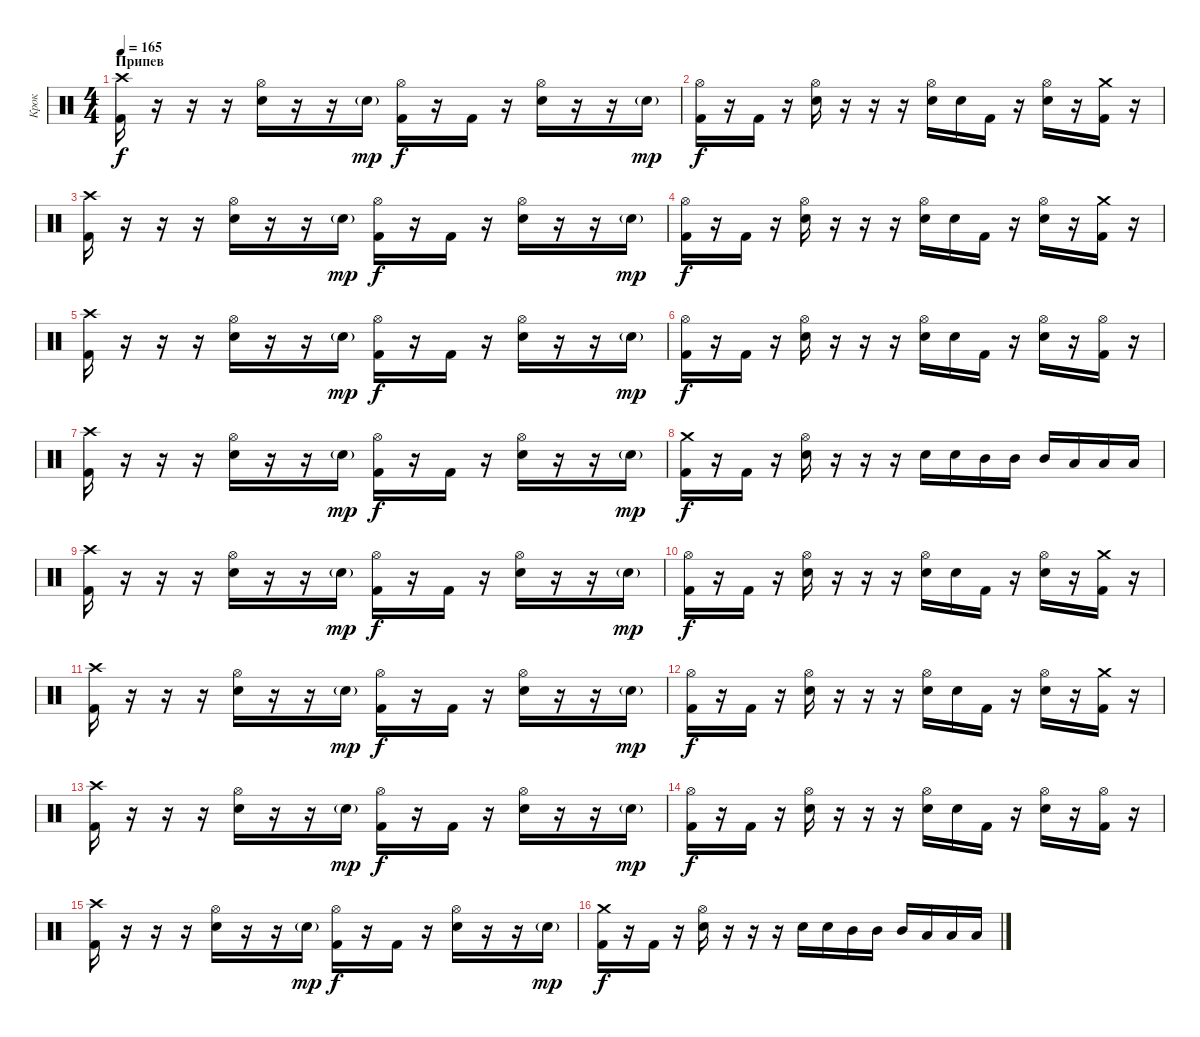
\track ("Крок" "Крок") {instrument percussion}
\staff {score}
\articulation defaults
\ts (4 4)
\section ("" "Припев")
\tempo 165
\clef neutral
\ks c
("Kick (hit) 2" "Crash high (hit)").16{dy f} r.16 r.16 r.16 ("Electric Snare (hit)" "Hi-Hat (open)").16 r.16 r.16 "Electric Snare (hit)"{g}.16{dy mp} ("Kick (hit) 2" "Hi-Hat (open)").16{dy f} r.16 "Kick (hit) 2".16 r.16 ("Electric Snare (hit)" "Hi-Hat (open)").16 r.16 r.16 "Electric Snare (hit)"{g}.16{dy mp} |
("Kick (hit) 2" "Hi-Hat (open)").16{dy f} r.16 "Kick (hit) 2".16 r.16 ("Electric Snare (hit)" "Hi-Hat (open)").16 r.16 r.16 r.16 ("Electric Snare (hit)" "Hi-Hat (open)").16 "Electric Snare (hit)".16 "Kick (hit) 2".16 r.16 ("Electric Snare (hit)" "Hi-Hat (open)").16 r.16 ("Kick (hit) 2" "Crash medium (hit)").16 r.16 |
("Kick (hit) 2" "Crash high (hit)").16 r.16 r.16 r.16 ("Electric Snare (hit)" "Hi-Hat (open)").16 r.16 r.16 "Electric Snare (hit)"{g}.16{dy mp} ("Kick (hit) 2" "Hi-Hat (open)").16{dy f} r.16 "Kick (hit) 2".16 r.16 ("Electric Snare (hit)" "Hi-Hat (open)").16 r.16 r.16 "Electric Snare (hit)"{g}.16{dy mp} |
("Kick (hit) 2" "Hi-Hat (open)").16{dy f} r.16 "Kick (hit) 2".16 r.16 ("Electric Snare (hit)" "Hi-Hat (open)").16 r.16 r.16 r.16 ("Electric Snare (hit)" "Hi-Hat (open)").16 "Electric Snare (hit)".16 "Kick (hit) 2".16 r.16 ("Electric Snare (hit)" "Hi-Hat (open)").16 r.16 ("Kick (hit) 2" "Crash medium (hit)").16 r.16 |
("Kick (hit) 2" "Crash high (hit)").16 r.16 r.16 r.16 ("Electric Snare (hit)" "Hi-Hat (open)").16 r.16 r.16 "Electric Snare (hit)"{g}.16{dy mp} ("Kick (hit) 2" "Hi-Hat (open)").16{dy f} r.16 "Kick (hit) 2".16 r.16 ("Electric Snare (hit)" "Hi-Hat (open)").16 r.16 r.16 "Electric Snare (hit)"{g}.16{dy mp} |
("Kick (hit) 2" "Hi-Hat (open)").16{dy f} r.16 "Kick (hit) 2".16 r.16 ("Electric Snare (hit)" "Hi-Hat (open)").16 r.16 r.16 r.16 ("Electric Snare (hit)" "Hi-Hat (open)").16 "Electric Snare (hit)".16 "Kick (hit) 2".16 r.16 ("Electric Snare (hit)" "Hi-Hat (open)").16 r.16 ("Kick (hit) 2" "Hi-Hat (open)").16 r.16 |
("Kick (hit) 2" "Crash high (hit)").16 r.16 r.16 r.16 ("Electric Snare (hit)" "Hi-Hat (open)").16 r.16 r.16 "Electric Snare (hit)"{g}.16{dy mp} ("Kick (hit) 2" "Hi-Hat (open)").16{dy f} r.16 "Kick (hit) 2".16 r.16 ("Electric Snare (hit)" "Hi-Hat (open)").16 r.16 r.16 "Electric Snare (hit)"{g}.16{dy mp} |
("Kick (hit) 2" "Crash medium (hit)").16{dy f} r.16 "Kick (hit) 2".16 r.16 ("Electric Snare (hit)" "Hi-Hat (open)").16 r.16 r.16 r.16 "Electric Snare (hit)".16 "Electric Snare (hit)".16 "Mid Tom (hit)".16 "Mid Tom (hit)".16 "Mid Tom (hit)".16 "Low Tom (hit)".16 "Low Tom (hit)".16 "Low Tom (hit)".16 |
("Kick (hit) 2" "Crash high (hit)").16 r.16 r.16 r.16 ("Electric Snare (hit)" "Hi-Hat (open)").16 r.16 r.16 "Electric Snare (hit)"{g}.16{dy mp} ("Kick (hit) 2" "Hi-Hat (open)").16{dy f} r.16 "Kick (hit) 2".16 r.16 ("Electric Snare (hit)" "Hi-Hat (open)").16 r.16 r.16 "Electric Snare (hit)"{g}.16{dy mp} |
("Kick (hit) 2" "Hi-Hat (open)").16{dy f} r.16 "Kick (hit) 2".16 r.16 ("Electric Snare (hit)" "Hi-Hat (open)").16 r.16 r.16 r.16 ("Electric Snare (hit)" "Hi-Hat (open)").16 "Electric Snare (hit)".16 "Kick (hit) 2".16 r.16 ("Electric Snare (hit)" "Hi-Hat (open)").16 r.16 ("Kick (hit) 2" "Crash medium (hit)").16 r.16 |
("Kick (hit) 2" "Crash high (hit)").16 r.16 r.16 r.16 ("Electric Snare (hit)" "Hi-Hat (open)").16 r.16 r.16 "Electric Snare (hit)"{g}.16{dy mp} ("Kick (hit) 2" "Hi-Hat (open)").16{dy f} r.16 "Kick (hit) 2".16 r.16 ("Electric Snare (hit)" "Hi-Hat (open)").16 r.16 r.16 "Electric Snare (hit)"{g}.16{dy mp} |
("Kick (hit) 2" "Hi-Hat (open)").16{dy f} r.16 "Kick (hit) 2".16 r.16 ("Electric Snare (hit)" "Hi-Hat (open)").16 r.16 r.16 r.16 ("Electric Snare (hit)" "Hi-Hat (open)").16 "Electric Snare (hit)".16 "Kick (hit) 2".16 r.16 ("Electric Snare (hit)" "Hi-Hat (open)").16 r.16 ("Kick (hit) 2" "Crash medium (hit)").16 r.16 |
("Kick (hit) 2" "Crash high (hit)").16 r.16 r.16 r.16 ("Electric Snare (hit)" "Hi-Hat (open)").16 r.16 r.16 "Electric Snare (hit)"{g}.16{dy mp} ("Kick (hit) 2" "Hi-Hat (open)").16{dy f} r.16 "Kick (hit) 2".16 r.16 ("Electric Snare (hit)" "Hi-Hat (open)").16 r.16 r.16 "Electric Snare (hit)"{g}.16{dy mp} |
("Kick (hit) 2" "Hi-Hat (open)").16{dy f} r.16 "Kick (hit) 2".16 r.16 ("Electric Snare (hit)" "Hi-Hat (open)").16 r.16 r.16 r.16 ("Electric Snare (hit)" "Hi-Hat (open)").16 "Electric Snare (hit)".16 "Kick (hit) 2".16 r.16 ("Electric Snare (hit)" "Hi-Hat (open)").16 r.16 ("Kick (hit) 2" "Hi-Hat (open)").16 r.16 |
("Kick (hit) 2" "Crash high (hit)").16 r.16 r.16 r.16 ("Electric Snare (hit)" "Hi-Hat (open)").16 r.16 r.16 "Electric Snare (hit)"{g}.16{dy mp} ("Kick (hit) 2" "Hi-Hat (open)").16{dy f} r.16 "Kick (hit) 2".16 r.16 ("Electric Snare (hit)" "Hi-Hat (open)").16 r.16 r.16 "Electric Snare (hit)"{g}.16{dy mp} |
("Kick (hit) 2" "Crash medium (hit)").16{dy f} r.16 "Kick (hit) 2".16 r.16 ("Electric Snare (hit)" "Hi-Hat (open)").16 r.16 r.16 r.16 "Electric Snare (hit)".16 "Electric Snare (hit)".16 "Mid Tom (hit)".16 "Mid Tom (hit)".16 "Mid Tom (hit)".16 "Low Tom (hit)".16 "Low Tom (hit)".16 "Low Tom (hit)".16
